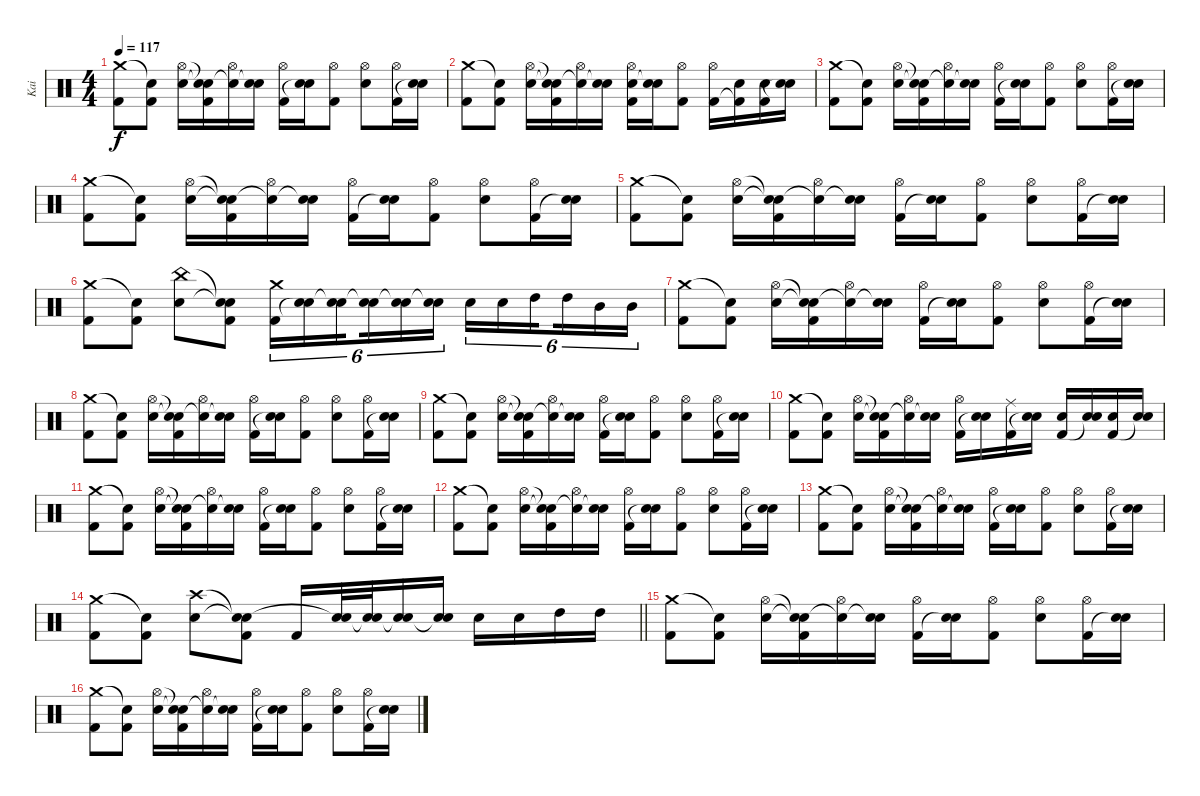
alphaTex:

\track ("Kai" "Kai") {instrument percussion}
\staff {score}
\articulation defaults
\ts (4 4)
\tempo 117
\clef neutral
\ks c
("Crash medium (hit)" "Kick (hit) 2").8{dy f} ("Snare (hit)"{t} "Kick (hit) 2").8 ("Hi-Hat (open)" "Snare (hit) 2").16 ("Snare (hit)"{t} "Snare (hit)"{t} "Kick (hit) 2").16 ("Hi-Hat (open)" "Snare (hit)"{t}).16 ("Snare (hit) 2" "Snare (hit)"{t}).16 ("Hi-Hat (open)" "Kick (hit) 2").16 ("Snare (hit) 2" "Snare (hit)"{t}).16 ("Hi-Hat (open)" "Kick (hit) 2").8 ("Hi-Hat (open)" "Snare (hit) 2").8 ("Hi-Hat (open)" "Kick (hit) 2").16 ("Snare (hit) 2" "Snare (hit)"{t}).16 |
("Crash medium (hit)" "Kick (hit) 2").8 ("Snare (hit)"{t} "Kick (hit) 2").8 ("Hi-Hat (open)" "Snare (hit) 2").16 ("Snare (hit)"{t} "Snare (hit)"{t} "Kick (hit) 2").16 ("Hi-Hat (open)" "Snare (hit)"{t}).16 ("Snare (hit) 2" "Snare (hit)"{t}).16 ("Hi-Hat (open)" "Snare (hit) 2" "Kick (hit) 2").16 ("Snare (hit) 2" "Snare (hit)"{t}).16 ("Hi-Hat (open)" "Kick (hit) 2").8 ("Hi-Hat (open)" "Kick (hit) 2").16 ("Snare (hit) 2" "Kick (hit) 2"{t}).16 ("Snare (hit) 2" "Kick (hit) 2").16 ("Snare (hit) 2" "Snare (hit)"{t}).16 |
("Crash medium (hit)" "Kick (hit) 2").8 ("Snare (hit)"{t} "Kick (hit) 2").8 ("Hi-Hat (open)" "Snare (hit) 2").16 ("Snare (hit)"{t} "Snare (hit)"{t} "Kick (hit) 2").16 ("Hi-Hat (open)" "Snare (hit)"{t}).16 ("Snare (hit) 2" "Snare (hit)"{t}).16 ("Hi-Hat (open)" "Kick (hit) 2").16 ("Snare (hit) 2" "Snare (hit)"{t}).16 ("Hi-Hat (open)" "Kick (hit) 2").8 ("Hi-Hat (open)" "Snare (hit) 2").8 ("Hi-Hat (open)" "Kick (hit) 2").16 ("Snare (hit) 2" "Snare (hit)"{t}).16 |
("Crash medium (hit)" "Kick (hit) 2").8 ("Snare (hit)"{t} "Kick (hit) 2").8 ("Hi-Hat (open)" "Snare (hit) 2").16 ("Snare (hit)"{t} "Snare (hit)"{t} "Kick (hit) 2").16 ("Hi-Hat (open)" "Snare (hit)"{t}).16 ("Snare (hit) 2" "Snare (hit)"{t}).16 ("Hi-Hat (open)" "Kick (hit) 2").16 ("Snare (hit) 2" "Snare (hit)"{t}).16 ("Hi-Hat (open)" "Kick (hit) 2").8 ("Hi-Hat (open)" "Snare (hit) 2").8 ("Hi-Hat (open)" "Kick (hit) 2").16 ("Snare (hit) 2" "Snare (hit)"{t}).16 |
("Crash medium (hit)" "Kick (hit) 2").8 ("Snare (hit)"{t} "Kick (hit) 2").8 ("Hi-Hat (open)" "Snare (hit) 2").16 ("Snare (hit)"{t} "Snare (hit)"{t} "Kick (hit) 2").16 ("Hi-Hat (open)" "Snare (hit)"{t}).16 ("Snare (hit) 2" "Snare (hit)"{t}).16 ("Hi-Hat (open)" "Kick (hit) 2").16 ("Snare (hit) 2" "Snare (hit)"{t}).16 ("Hi-Hat (open)" "Kick (hit) 2").8 ("Hi-Hat (open)" "Snare (hit) 2").8 ("Hi-Hat (open)" "Kick (hit) 2").16 ("Snare (hit) 2" "Snare (hit)"{t}).16 |
("Crash medium (hit)" "Kick (hit) 2").8 ("Snare (hit)"{t} "Kick (hit) 2").8 ("China (hit)" "Snare (hit) 2").8 ("Snare (hit)"{t} "Snare (hit)"{t} "Kick (hit) 2").8 ("Crash medium (hit)" "Kick (hit) 2").16{tu (6 4)} ("Snare (hit) 2" "Snare (hit)"{t}).16{tu (6 4)} ("Snare (hit) 2" "Snare (hit)"{t}).16{tu (6 4) beam splitsecondary} ("Snare (hit) 2" "Snare (hit)"{t}).16{tu (6 4)} ("Snare (hit) 2" "Snare (hit)"{t}).16{tu (6 4)} ("Snare (hit) 2" "Snare (hit)"{t}).16{tu (6 4)} "Snare (hit) 2".16{tu (6 4)} "Snare (hit) 2".16{tu (6 4)} "High Tom (hit)".16{tu (6 4) beam splitsecondary} "High Tom (hit)".16{tu (6 4)} "Mid Tom (hit)".16{tu (6 4)} "Mid Tom (hit)".16{tu (6 4)} |
("Crash medium (hit)" "Kick (hit) 2").8 ("Snare (hit)"{t} "Kick (hit) 2").8 ("Hi-Hat (open)" "Snare (hit) 2").16 ("Snare (hit)"{t} "Snare (hit)"{t} "Kick (hit) 2").16 ("Hi-Hat (open)" "Snare (hit)"{t}).16 ("Snare (hit) 2" "Snare (hit)"{t}).16 ("Hi-Hat (open)" "Kick (hit) 2").16 ("Snare (hit) 2" "Snare (hit)"{t}).16 ("Hi-Hat (open)" "Kick (hit) 2").8 ("Hi-Hat (open)" "Snare (hit) 2").8 ("Hi-Hat (open)" "Kick (hit) 2").16 ("Snare (hit) 2" "Snare (hit)"{t}).16 |
("Crash medium (hit)" "Kick (hit) 2").8 ("Snare (hit)"{t} "Kick (hit) 2").8 ("Hi-Hat (open)" "Snare (hit) 2").16 ("Snare (hit)"{t} "Snare (hit)"{t} "Kick (hit) 2").16 ("Hi-Hat (open)" "Snare (hit)"{t}).16 ("Snare (hit) 2" "Snare (hit)"{t}).16 ("Hi-Hat (open)" "Kick (hit) 2").16 ("Snare (hit) 2" "Snare (hit)"{t}).16 ("Hi-Hat (open)" "Kick (hit) 2").8 ("Hi-Hat (open)" "Snare (hit) 2").8 ("Hi-Hat (open)" "Kick (hit) 2").16 ("Snare (hit) 2" "Snare (hit)"{t}).16 |
("Crash medium (hit)" "Kick (hit) 2").8 ("Snare (hit)"{t} "Kick (hit) 2").8 ("Hi-Hat (open)" "Snare (hit) 2").16 ("Snare (hit)"{t} "Snare (hit)"{t} "Kick (hit) 2").16 ("Hi-Hat (open)" "Snare (hit)"{t}).16 ("Snare (hit) 2" "Snare (hit)"{t}).16 ("Hi-Hat (open)" "Kick (hit) 2").16 ("Snare (hit) 2" "Snare (hit)"{t}).16 ("Hi-Hat (open)" "Kick (hit) 2").8 ("Hi-Hat (open)" "Snare (hit) 2").8 ("Hi-Hat (open)" "Kick (hit) 2").16 ("Snare (hit) 2" "Snare (hit)"{t}).16 |
("Crash medium (hit)" "Kick (hit) 2").8 ("Snare (hit)"{t} "Kick (hit) 2").8 ("Hi-Hat (open)" "Snare (hit) 2").16 ("Snare (hit)"{t} "Snare (hit)"{t} "Kick (hit) 2").16 ("Hi-Hat (open)" "Snare (hit)"{t}).16 ("Snare (hit) 2" "Snare (hit)"{t}).16 ("Hi-Hat (open)" "Kick (hit) 2").16 ("Snare (hit) 2" "Snare (hit)"{t}).16 ("Ride (middle)" "Kick (hit) 2").16 ("Snare (hit) 2" "Snare (hit)"{t}).16 ("Snare (hit) 2" "Kick (hit) 2").16 ("Snare (hit) 2" "Snare (hit)"{t}).16 ("Snare (hit) 2" "Kick (hit) 2").16 ("Snare (hit) 2" "Snare (hit)"{t}).16 |
("Crash medium (hit)" "Kick (hit) 2").8 ("Snare (hit)"{t} "Kick (hit) 2").8 ("Hi-Hat (open)" "Snare (hit) 2").16 ("Snare (hit)"{t} "Snare (hit)"{t} "Kick (hit) 2").16 ("Hi-Hat (open)" "Snare (hit)"{t}).16 ("Snare (hit) 2" "Snare (hit)"{t}).16 ("Hi-Hat (open)" "Kick (hit) 2").16 ("Snare (hit) 2" "Snare (hit)"{t}).16 ("Hi-Hat (open)" "Kick (hit) 2").8 ("Hi-Hat (open)" "Snare (hit) 2").8 ("Hi-Hat (open)" "Kick (hit) 2").16 ("Snare (hit) 2" "Snare (hit)"{t}).16 |
("Crash medium (hit)" "Kick (hit) 2").8 ("Snare (hit)"{t} "Kick (hit) 2").8 ("Hi-Hat (open)" "Snare (hit) 2").16 ("Snare (hit)"{t} "Snare (hit)"{t} "Kick (hit) 2").16 ("Hi-Hat (open)" "Snare (hit)"{t}).16 ("Snare (hit) 2" "Snare (hit)"{t}).16 ("Hi-Hat (open)" "Kick (hit) 2").16 ("Snare (hit) 2" "Snare (hit)"{t}).16 ("Hi-Hat (open)" "Kick (hit) 2").8 ("Hi-Hat (open)" "Snare (hit) 2").8 ("Hi-Hat (open)" "Kick (hit) 2").16 ("Snare (hit) 2" "Snare (hit)"{t}).16 |
("Crash medium (hit)" "Kick (hit) 2").8 ("Snare (hit)"{t} "Kick (hit) 2").8 ("Hi-Hat (open)" "Snare (hit) 2").16 ("Snare (hit)"{t} "Snare (hit)"{t} "Kick (hit) 2").16 ("Hi-Hat (open)" "Snare (hit)"{t}).16 ("Snare (hit) 2" "Snare (hit)"{t}).16 ("Hi-Hat (open)" "Kick (hit) 2").16 ("Snare (hit) 2" "Snare (hit)"{t}).16 ("Hi-Hat (open)" "Kick (hit) 2").8 ("Hi-Hat (open)" "Snare (hit) 2").8 ("Hi-Hat (open)" "Kick (hit) 2").16 ("Snare (hit) 2" "Snare (hit)"{t}).16 |
\barLineRight lightlight
("Crash medium (hit)" "Kick (hit) 2").8 ("Snare (hit)"{t} "Kick (hit) 2").8 ("Crash high (hit)" "Snare (hit) 2").8 ("Snare (hit)"{t} "Snare (hit)"{t} "Kick (hit) 2").8 "Kick (hit) 2".16 ("Snare (hit) 2" "Snare (hit)"{t}).32 ("Snare (hit) 2" "Snare (hit)"{t}).32 ("Snare (hit) 2" "Snare (hit)"{t}).16 ("Snare (hit) 2" "Snare (hit)"{t}).16 "Snare (hit) 2".16 "Snare (hit) 2".16 "High Tom (hit)".16 "High Tom (hit)".16 |
("Crash medium (hit)" "Kick (hit) 2").8 ("Snare (hit)"{t} "Kick (hit) 2").8 ("Hi-Hat (open)" "Snare (hit) 2").16 ("Snare (hit)"{t} "Snare (hit)"{t} "Kick (hit) 2").16 ("Hi-Hat (open)" "Snare (hit)"{t}).16 ("Snare (hit) 2" "Snare (hit)"{t}).16 ("Hi-Hat (open)" "Kick (hit) 2").16 ("Snare (hit) 2" "Snare (hit)"{t}).16 ("Hi-Hat (open)" "Kick (hit) 2").8 ("Hi-Hat (open)" "Snare (hit) 2").8 ("Hi-Hat (open)" "Kick (hit) 2").16 ("Snare (hit) 2" "Snare (hit)"{t}).16 |
("Crash medium (hit)" "Kick (hit) 2").8 ("Snare (hit)"{t} "Kick (hit) 2").8 ("Hi-Hat (open)" "Snare (hit) 2").16 ("Snare (hit)"{t} "Snare (hit)"{t} "Kick (hit) 2").16 ("Hi-Hat (open)" "Snare (hit)"{t}).16 ("Snare (hit) 2" "Snare (hit)"{t}).16 ("Hi-Hat (open)" "Kick (hit) 2").16 ("Snare (hit) 2" "Snare (hit)"{t}).16 ("Hi-Hat (open)" "Kick (hit) 2").8 ("Hi-Hat (open)" "Snare (hit) 2").8 ("Hi-Hat (open)" "Kick (hit) 2").16 ("Snare (hit) 2" "Snare (hit)"{t}).16
